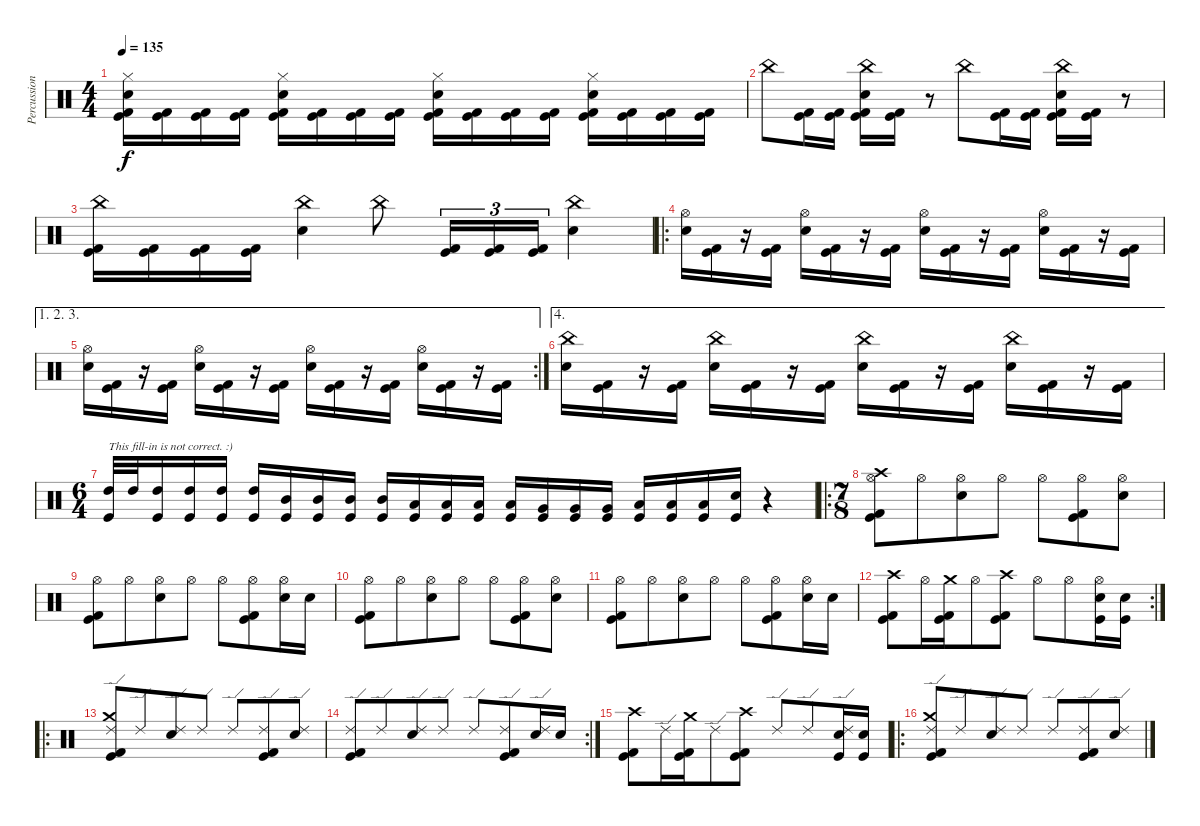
\track ("Percussion" "Percussion") {instrument percussion}
\staff {score}
\articulation defaults
\ts (4 4)
\tempo 135
\clef neutral
\ks c
("Hi-Hat (closed)" "Snare (hit) 2" "Kick (hit) 2" "Kick (hit)").16{dy f} ("Kick (hit) 2" "Kick (hit)").16 ("Kick (hit) 2" "Kick (hit)").16 ("Kick (hit) 2" "Kick (hit)").16 ("Hi-Hat (closed)" "Snare (hit) 2" "Kick (hit) 2" "Kick (hit)").16 ("Kick (hit) 2" "Kick (hit)").16 ("Kick (hit) 2" "Kick (hit)").16 ("Kick (hit) 2" "Kick (hit)").16 ("Hi-Hat (closed)" "Snare (hit) 2" "Kick (hit) 2" "Kick (hit)").16 ("Kick (hit) 2" "Kick (hit)").16 ("Kick (hit) 2" "Kick (hit)").16 ("Kick (hit) 2" "Kick (hit)").16 ("Hi-Hat (closed)" "Snare (hit) 2" "Kick (hit) 2" "Kick (hit)").16 ("Kick (hit) 2" "Kick (hit)").16 ("Kick (hit) 2" "Kick (hit)").16 ("Kick (hit) 2" "Kick (hit)").16 |
"China (hit)".8 ("Kick (hit) 2" "Kick (hit)").16 ("Kick (hit) 2" "Kick (hit)").16 ("China (hit)" "Snare (hit) 2" "Kick (hit) 2" "Kick (hit)").16 ("Kick (hit) 2" "Kick (hit)").16 r.8 "China (hit)".8 ("Kick (hit) 2" "Kick (hit)").16 ("Kick (hit) 2" "Kick (hit)").16 ("China (hit)" "Snare (hit) 2" "Kick (hit) 2" "Kick (hit)").16 ("Kick (hit) 2" "Kick (hit)").16 r.8 |
("China (hit)" "Kick (hit) 2" "Kick (hit)").16 ("Kick (hit) 2" "Kick (hit)").16 ("Kick (hit) 2" "Kick (hit)").16 ("Kick (hit) 2" "Kick (hit)").16 ("China (hit)" "Snare (hit) 2").4 "China (hit)".8 ("Kick (hit) 2" "Kick (hit)").16{tu (3 2)} ("Kick (hit) 2" "Kick (hit)").16{tu (3 2)} ("Kick (hit) 2" "Kick (hit)").16{tu (3 2)} ("China (hit)" "Snare (hit) 2").4 |
\ro
("Hi-Hat (open)" "Snare (hit) 2").16 ("Kick (hit) 2" "Kick (hit)").16 r.16 ("Kick (hit) 2" "Kick (hit)").16 ("Hi-Hat (open)" "Snare (hit) 2").16 ("Kick (hit) 2" "Kick (hit)").16 r.16 ("Kick (hit) 2" "Kick (hit)").16 ("Hi-Hat (open)" "Snare (hit) 2").16 ("Kick (hit) 2" "Kick (hit)").16 r.16 ("Kick (hit) 2" "Kick (hit)").16 ("Hi-Hat (open)" "Snare (hit) 2").16 ("Kick (hit) 2" "Kick (hit)").16 r.16 ("Kick (hit) 2" "Kick (hit)").16 |
\ae (1 2 3)
\rc 2
("Hi-Hat (open)" "Snare (hit) 2").16 ("Kick (hit) 2" "Kick (hit)").16 r.16 ("Kick (hit) 2" "Kick (hit)").16 ("Hi-Hat (open)" "Snare (hit) 2").16 ("Kick (hit) 2" "Kick (hit)").16 r.16 ("Kick (hit) 2" "Kick (hit)").16 ("Hi-Hat (open)" "Snare (hit) 2").16 ("Kick (hit) 2" "Kick (hit)").16 r.16 ("Kick (hit) 2" "Kick (hit)").16 ("Hi-Hat (open)" "Snare (hit) 2").16 ("Kick (hit) 2" "Kick (hit)").16 r.16 ("Kick (hit) 2" "Kick (hit)").16 |
\ae 4
("China (hit)" "Snare (hit) 2").16 ("Kick (hit) 2" "Kick (hit)").16 r.16 ("Kick (hit) 2" "Kick (hit)").16 ("China (hit)" "Snare (hit) 2").16 ("Kick (hit) 2" "Kick (hit)").16 r.16 ("Kick (hit) 2" "Kick (hit)").16 ("China (hit)" "Snare (hit) 2").16 ("Kick (hit) 2" "Kick (hit)").16 r.16 ("Kick (hit) 2" "Kick (hit)").16 ("China (hit)" "Snare (hit) 2").16 ("Kick (hit) 2" "Kick (hit)").16 r.16 ("Kick (hit) 2" "Kick (hit)").16 |
\ts (6 4)
("High Tom (hit)" "Kick (hit)").32{txt "This fill-in is not correct. :)"} "High Tom (hit)".32 ("High Tom (hit)" "Kick (hit)").16 ("High Tom (hit)" "Kick (hit)").16 ("High Tom (hit)" "Kick (hit)").16 ("High Tom (hit)" "Kick (hit)").16 ("Mid Tom (hit)" "Kick (hit)").16 ("Mid Tom (hit)" "Kick (hit)").16 ("Mid Tom (hit)" "Kick (hit)").16 ("Mid Tom (hit)" "Kick (hit)").16 ("Low Tom (hit)" "Kick (hit)").16 ("Low Tom (hit)" "Kick (hit)").16 ("Low Tom (hit)" "Kick (hit)").16 ("Low Tom (hit)" "Kick (hit)").16 ("Very Low Tom (hit)" "Kick (hit)").16 ("Very Low Tom (hit)" "Kick (hit)").16 ("Very Low Tom (hit)" "Kick (hit)").16 ("Low Floor Tom (hit)" "Kick (hit)").16 ("Low Floor Tom (hit)" "Kick (hit)").16 ("Low Floor Tom (hit)" "Kick (hit)").16 ("Snare (hit) 2" "Kick (hit)").16 r.4 |
\ro
\ts (7 8)
("Hi-Hat (open)" "Crash high (hit)" "Kick (hit) 2" "Kick (hit)").8 "Hi-Hat (open)".8 ("Hi-Hat (open)" "Snare (hit) 2").8 "Hi-Hat (open)".8 "Hi-Hat (open)".8 ("Hi-Hat (open)" "Kick (hit) 2" "Kick (hit)").8 ("Hi-Hat (open)" "Snare (hit) 2").8 |
("Hi-Hat (open)" "Kick (hit) 2" "Kick (hit)").8 "Hi-Hat (open)".8 ("Hi-Hat (open)" "Snare (hit) 2").8 "Hi-Hat (open)".8 "Hi-Hat (open)".8 ("Hi-Hat (open)" "Kick (hit) 2" "Kick (hit)").8 ("Hi-Hat (open)" "Snare (hit) 2").16 "Snare (hit) 2".16 |
("Hi-Hat (open)" "Kick (hit) 2" "Kick (hit)").8 "Hi-Hat (open)".8 ("Hi-Hat (open)" "Snare (hit) 2").8 "Hi-Hat (open)".8 "Hi-Hat (open)".8 ("Hi-Hat (open)" "Kick (hit) 2" "Kick (hit)").8 ("Hi-Hat (open)" "Snare (hit) 2").8 |
("Hi-Hat (open)" "Kick (hit) 2" "Kick (hit)").8 "Hi-Hat (open)".8 ("Hi-Hat (open)" "Snare (hit) 2").8 "Hi-Hat (open)".8 "Hi-Hat (open)".8 ("Hi-Hat (open)" "Kick (hit) 2" "Kick (hit)").8 ("Hi-Hat (open)" "Snare (hit) 2").16 "Snare (hit) 2".16 |
\rc 2
("Crash high (hit)" "Kick (hit) 2" "Kick (hit)").8 "Hi-Hat (open)".16 ("Crash medium (hit)" "Kick (hit) 2" "Kick (hit)").16 "Hi-Hat (open)".8 ("Crash high (hit)" "Kick (hit) 2" "Kick (hit)").8 "Hi-Hat (open)".8 "Hi-Hat (open)".8 ("Hi-Hat (open)" "Snare (hit) 2" "Kick (hit)").16 ("Snare (hit) 2" "Kick (hit)").16 |
\ro
("Ride (edge) 2" "Crash medium (hit)" "Kick (hit) 2" "Kick (hit)").8 "Ride (edge) 2".8 ("Ride (edge) 2" "Snare (hit) 2").8 "Ride (edge) 2".8 "Ride (edge) 2".8 ("Ride (edge) 2" "Kick (hit) 2" "Kick (hit)").8 ("Ride (edge) 2" "Snare (hit) 2").8 |
\rc 2
("Ride (edge) 2" "Kick (hit) 2" "Kick (hit)").8 "Ride (edge) 2".8 ("Ride (edge) 2" "Snare (hit) 2").8 "Ride (edge) 2".8 "Ride (edge) 2".8 ("Ride (edge) 2" "Kick (hit) 2" "Kick (hit)").8 ("Ride (edge) 2" "Snare (hit) 2").16 "Snare (hit) 2".16 |
("Crash high (hit)" "Kick (hit) 2" "Kick (hit)").8 "Ride (edge) 2".16 ("Crash medium (hit)" "Kick (hit) 2" "Kick (hit)").16 "Ride (edge) 2".8 ("Crash high (hit)" "Kick (hit) 2" "Kick (hit)").8 "Ride (edge) 2".8 "Ride (edge) 2".8 ("Ride (edge) 2" "Snare (hit) 2" "Kick (hit)").16 ("Snare (hit) 2" "Kick (hit)").16 |
\ro
("Ride (edge) 2" "Crash medium (hit)" "Kick (hit) 2" "Kick (hit)").8 "Ride (edge) 2".8 ("Ride (edge) 2" "Snare (hit) 2").8 "Ride (edge) 2".8 "Ride (edge) 2".8 ("Ride (edge) 2" "Kick (hit) 2" "Kick (hit)").8 ("Ride (edge) 2" "Snare (hit) 2").8
